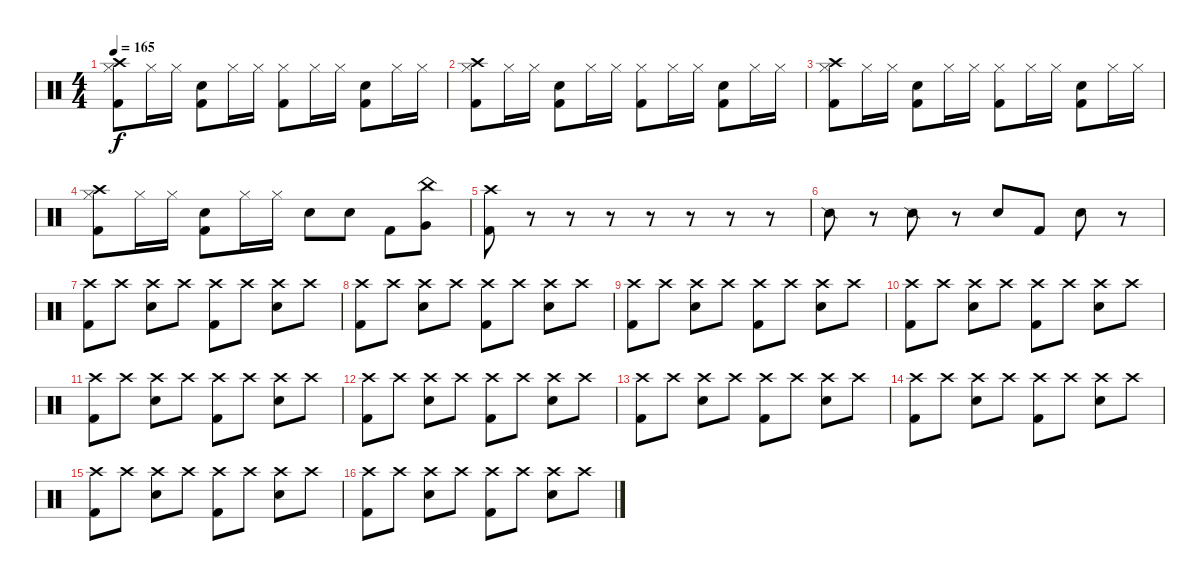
\track "" {instrument percussion}
\staff {score}
\articulation defaults
\ts (4 4)
\tempo 165
\clef neutral
\ks c
("Crash high (hit)" "Hi-Hat (closed)" "Kick (hit) 2").8{dy f} "Hi-Hat (closed)".16 "Hi-Hat (closed)".16 ("Electric Snare (hit)" "Kick (hit) 2").8 "Hi-Hat (closed)".16 "Hi-Hat (closed)".16 ("Hi-Hat (closed)" "Kick (hit) 2").8 "Hi-Hat (closed)".16 "Hi-Hat (closed)".16 ("Electric Snare (hit)" "Kick (hit) 2").8 "Hi-Hat (closed)".16 "Hi-Hat (closed)".16 |
("Crash high (hit)" "Hi-Hat (closed)" "Kick (hit) 2").8 "Hi-Hat (closed)".16 "Hi-Hat (closed)".16 ("Electric Snare (hit)" "Kick (hit) 2").8 "Hi-Hat (closed)".16 "Hi-Hat (closed)".16 ("Hi-Hat (closed)" "Kick (hit) 2").8 "Hi-Hat (closed)".16 "Hi-Hat (closed)".16 ("Electric Snare (hit)" "Kick (hit) 2").8 "Hi-Hat (closed)".16 "Hi-Hat (closed)".16 |
("Crash high (hit)" "Hi-Hat (closed)" "Kick (hit) 2").8 "Hi-Hat (closed)".16 "Hi-Hat (closed)".16 ("Electric Snare (hit)" "Kick (hit) 2").8 "Hi-Hat (closed)".16 "Hi-Hat (closed)".16 ("Hi-Hat (closed)" "Kick (hit) 2").8 "Hi-Hat (closed)".16 "Hi-Hat (closed)".16 ("Electric Snare (hit)" "Kick (hit) 2").8 "Hi-Hat (closed)".16 "Hi-Hat (closed)".16 |
("Crash high (hit)" "Hi-Hat (closed)" "Kick (hit) 2").8 "Hi-Hat (closed)".16 "Hi-Hat (closed)".16 ("Electric Snare (hit)" "Kick (hit) 2").8 "Hi-Hat (closed)".16 "Hi-Hat (closed)".16 "Electric Snare (hit)".8 "Electric Snare (hit)".8 "Kick (hit) 2".8 ("China (hit)" "Very Low Tom (hit)").8 |
("Crash high (hit)" "Kick (hit) 2").8 r.8 r.8 r.8 r.8 r.8 r.8 r.8 |
"Snare (side stick) 2".8 r.8 "Snare (side stick) 2".8 r.8 "Electric Snare (hit)".8 "Kick (hit) 2".8 "Electric Snare (hit)".8 r.8 |
("Crash high (hit)" "Kick (hit) 2").8 "Crash high (hit)".8 ("Crash high (hit)" "Electric Snare (hit)").8 "Crash high (hit)".8 ("Crash high (hit)" "Kick (hit) 2").8 "Crash high (hit)".8 ("Crash high (hit)" "Electric Snare (hit)").8 "Crash high (hit)".8 |
("Crash high (hit)" "Kick (hit) 2").8 "Crash high (hit)".8 ("Crash high (hit)" "Electric Snare (hit)").8 "Crash high (hit)".8 ("Crash high (hit)" "Kick (hit) 2").8 "Crash high (hit)".8 ("Crash high (hit)" "Electric Snare (hit)").8 "Crash high (hit)".8 |
("Crash high (hit)" "Kick (hit) 2").8 "Crash high (hit)".8 ("Crash high (hit)" "Electric Snare (hit)").8 "Crash high (hit)".8 ("Crash high (hit)" "Kick (hit) 2").8 "Crash high (hit)".8 ("Crash high (hit)" "Electric Snare (hit)").8 "Crash high (hit)".8 |
("Crash high (hit)" "Kick (hit) 2").8 "Crash high (hit)".8 ("Crash high (hit)" "Electric Snare (hit)").8 "Crash high (hit)".8 ("Crash high (hit)" "Kick (hit) 2").8 "Crash high (hit)".8 ("Crash high (hit)" "Electric Snare (hit)").8 "Crash high (hit)".8 |
("Crash high (hit)" "Kick (hit) 2").8 "Crash high (hit)".8 ("Crash high (hit)" "Electric Snare (hit)").8 "Crash high (hit)".8 ("Crash high (hit)" "Kick (hit) 2").8 "Crash high (hit)".8 ("Crash high (hit)" "Electric Snare (hit)").8 "Crash high (hit)".8 |
("Crash high (hit)" "Kick (hit) 2").8 "Crash high (hit)".8 ("Crash high (hit)" "Electric Snare (hit)").8 "Crash high (hit)".8 ("Crash high (hit)" "Kick (hit) 2").8 "Crash high (hit)".8 ("Crash high (hit)" "Electric Snare (hit)").8 "Crash high (hit)".8 |
("Crash high (hit)" "Kick (hit) 2").8 "Crash high (hit)".8 ("Crash high (hit)" "Electric Snare (hit)").8 "Crash high (hit)".8 ("Crash high (hit)" "Kick (hit) 2").8 "Crash high (hit)".8 ("Crash high (hit)" "Electric Snare (hit)").8 "Crash high (hit)".8 |
("Crash high (hit)" "Kick (hit) 2").8 "Crash high (hit)".8 ("Crash high (hit)" "Electric Snare (hit)").8 "Crash high (hit)".8 ("Crash high (hit)" "Kick (hit) 2").8 "Crash high (hit)".8 ("Crash high (hit)" "Electric Snare (hit)").8 "Crash high (hit)".8 |
("Crash high (hit)" "Kick (hit) 2").8 "Crash high (hit)".8 ("Crash high (hit)" "Electric Snare (hit)").8 "Crash high (hit)".8 ("Crash high (hit)" "Kick (hit) 2").8 "Crash high (hit)".8 ("Crash high (hit)" "Electric Snare (hit)").8 "Crash high (hit)".8 |
("Crash high (hit)" "Kick (hit) 2").8 "Crash high (hit)".8 ("Crash high (hit)" "Electric Snare (hit)").8 "Crash high (hit)".8 ("Crash high (hit)" "Kick (hit) 2").8 "Crash high (hit)".8 ("Crash high (hit)" "Electric Snare (hit)").8 "Crash high (hit)".8
